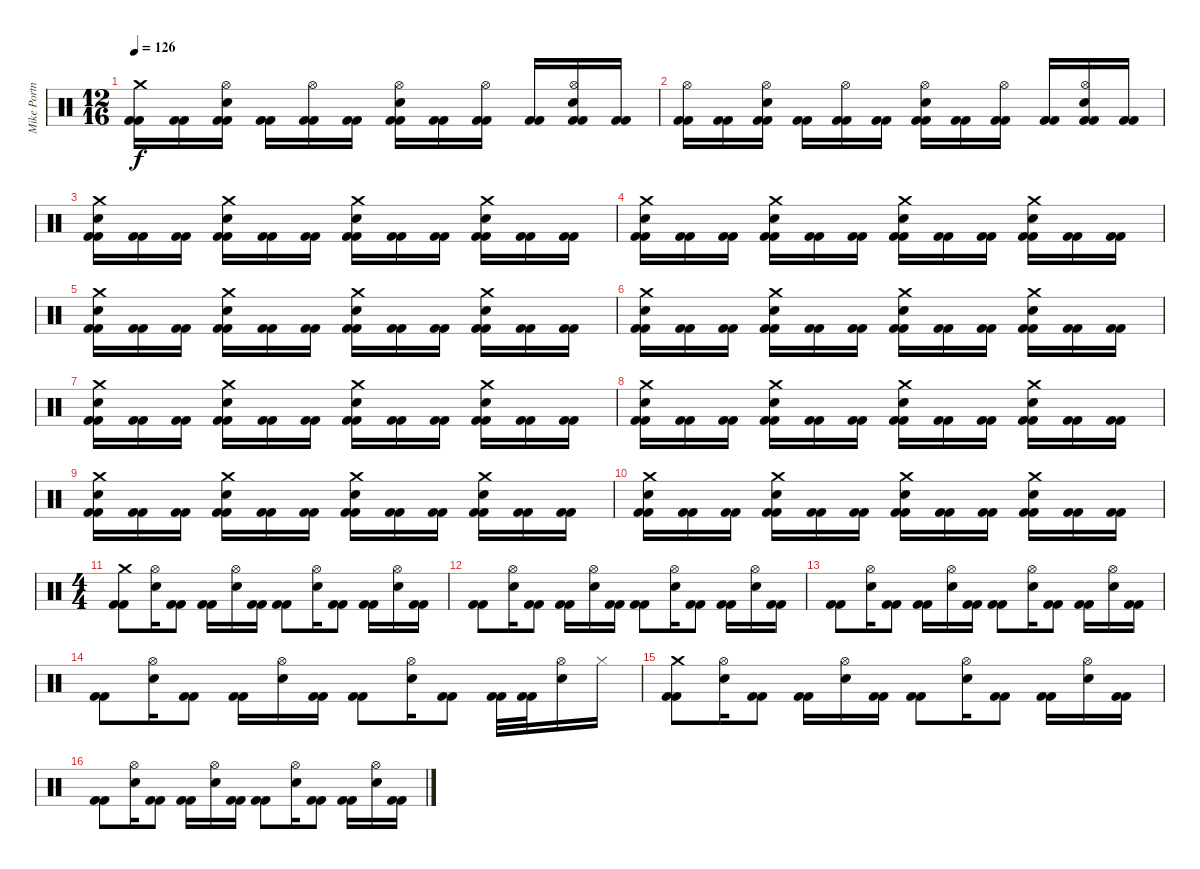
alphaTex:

\track ("Mike Portnoy" "Mike Portn") {instrument percussion}
\staff {score}
\articulation defaults
\ts (12 16)
\tempo 126
\clef neutral
\ks c
("Crash medium (hit)" "Kick (hit) 2" "Kick (hit) 2").16{dy f} ("Kick (hit) 2" "Kick (hit) 2").16 ("Hi-Hat (open)" "Electric Snare (hit)" "Kick (hit) 2" "Kick (hit) 2").16 ("Kick (hit) 2" "Kick (hit) 2").16 ("Hi-Hat (open)" "Kick (hit) 2" "Kick (hit) 2").16 ("Kick (hit) 2" "Kick (hit) 2").16 ("Hi-Hat (open)" "Electric Snare (hit)" "Kick (hit) 2" "Kick (hit) 2").16 ("Kick (hit) 2" "Kick (hit) 2").16 ("Hi-Hat (open)" "Kick (hit) 2" "Kick (hit) 2").16 ("Kick (hit) 2" "Kick (hit) 2").16 ("Hi-Hat (open)" "Electric Snare (hit)" "Kick (hit) 2" "Kick (hit) 2").16 ("Kick (hit) 2" "Kick (hit) 2").16 |
("Hi-Hat (open)" "Kick (hit) 2" "Kick (hit) 2").16 ("Kick (hit) 2" "Kick (hit) 2").16 ("Hi-Hat (open)" "Electric Snare (hit)" "Kick (hit) 2" "Kick (hit) 2").16 ("Kick (hit) 2" "Kick (hit) 2").16 ("Hi-Hat (open)" "Kick (hit) 2" "Kick (hit) 2").16 ("Kick (hit) 2" "Kick (hit) 2").16 ("Hi-Hat (open)" "Electric Snare (hit)" "Kick (hit) 2" "Kick (hit) 2").16 ("Kick (hit) 2" "Kick (hit) 2").16 ("Hi-Hat (open)" "Kick (hit) 2" "Kick (hit) 2").16 ("Kick (hit) 2" "Kick (hit) 2").16 ("Hi-Hat (open)" "Electric Snare (hit)" "Kick (hit) 2" "Kick (hit) 2").16 ("Kick (hit) 2" "Kick (hit) 2").16 |
("Crash medium (hit)" "Electric Snare (hit)" "Kick (hit) 2" "Kick (hit) 2").16 ("Kick (hit) 2" "Kick (hit) 2").16 ("Kick (hit) 2" "Kick (hit) 2").16 ("Crash medium (hit)" "Electric Snare (hit)" "Kick (hit) 2" "Kick (hit) 2").16 ("Kick (hit) 2" "Kick (hit) 2").16 ("Kick (hit) 2" "Kick (hit) 2").16 ("Crash medium (hit)" "Electric Snare (hit)" "Kick (hit) 2" "Kick (hit) 2").16 ("Kick (hit) 2" "Kick (hit) 2").16 ("Kick (hit) 2" "Kick (hit) 2").16 ("Crash medium (hit)" "Electric Snare (hit)" "Kick (hit) 2" "Kick (hit) 2").16 ("Kick (hit) 2" "Kick (hit) 2").16 ("Kick (hit) 2" "Kick (hit) 2").16 |
("Crash medium (hit)" "Electric Snare (hit)" "Kick (hit) 2" "Kick (hit) 2").16 ("Kick (hit) 2" "Kick (hit) 2").16 ("Kick (hit) 2" "Kick (hit) 2").16 ("Crash medium (hit)" "Electric Snare (hit)" "Kick (hit) 2" "Kick (hit) 2").16 ("Kick (hit) 2" "Kick (hit) 2").16 ("Kick (hit) 2" "Kick (hit) 2").16 ("Crash medium (hit)" "Electric Snare (hit)" "Kick (hit) 2" "Kick (hit) 2").16 ("Kick (hit) 2" "Kick (hit) 2").16 ("Kick (hit) 2" "Kick (hit) 2").16 ("Crash medium (hit)" "Electric Snare (hit)" "Kick (hit) 2" "Kick (hit) 2").16 ("Kick (hit) 2" "Kick (hit) 2").16 ("Kick (hit) 2" "Kick (hit) 2").16 |
("Crash medium (hit)" "Electric Snare (hit)" "Kick (hit) 2" "Kick (hit) 2").16 ("Kick (hit) 2" "Kick (hit) 2").16 ("Kick (hit) 2" "Kick (hit) 2").16 ("Crash medium (hit)" "Electric Snare (hit)" "Kick (hit) 2" "Kick (hit) 2").16 ("Kick (hit) 2" "Kick (hit) 2").16 ("Kick (hit) 2" "Kick (hit) 2").16 ("Crash medium (hit)" "Electric Snare (hit)" "Kick (hit) 2" "Kick (hit) 2").16 ("Kick (hit) 2" "Kick (hit) 2").16 ("Kick (hit) 2" "Kick (hit) 2").16 ("Crash medium (hit)" "Electric Snare (hit)" "Kick (hit) 2" "Kick (hit) 2").16 ("Kick (hit) 2" "Kick (hit) 2").16 ("Kick (hit) 2" "Kick (hit) 2").16 |
("Crash medium (hit)" "Electric Snare (hit)" "Kick (hit) 2" "Kick (hit) 2").16 ("Kick (hit) 2" "Kick (hit) 2").16 ("Kick (hit) 2" "Kick (hit) 2").16 ("Crash medium (hit)" "Electric Snare (hit)" "Kick (hit) 2" "Kick (hit) 2").16 ("Kick (hit) 2" "Kick (hit) 2").16 ("Kick (hit) 2" "Kick (hit) 2").16 ("Crash medium (hit)" "Electric Snare (hit)" "Kick (hit) 2" "Kick (hit) 2").16 ("Kick (hit) 2" "Kick (hit) 2").16 ("Kick (hit) 2" "Kick (hit) 2").16 ("Crash medium (hit)" "Electric Snare (hit)" "Kick (hit) 2" "Kick (hit) 2").16 ("Kick (hit) 2" "Kick (hit) 2").16 ("Kick (hit) 2" "Kick (hit) 2").16 |
("Crash medium (hit)" "Electric Snare (hit)" "Kick (hit) 2" "Kick (hit) 2").16 ("Kick (hit) 2" "Kick (hit) 2").16 ("Kick (hit) 2" "Kick (hit) 2").16 ("Crash medium (hit)" "Electric Snare (hit)" "Kick (hit) 2" "Kick (hit) 2").16 ("Kick (hit) 2" "Kick (hit) 2").16 ("Kick (hit) 2" "Kick (hit) 2").16 ("Crash medium (hit)" "Electric Snare (hit)" "Kick (hit) 2" "Kick (hit) 2").16 ("Kick (hit) 2" "Kick (hit) 2").16 ("Kick (hit) 2" "Kick (hit) 2").16 ("Crash medium (hit)" "Electric Snare (hit)" "Kick (hit) 2" "Kick (hit) 2").16 ("Kick (hit) 2" "Kick (hit) 2").16 ("Kick (hit) 2" "Kick (hit) 2").16 |
("Crash medium (hit)" "Electric Snare (hit)" "Kick (hit) 2" "Kick (hit) 2").16 ("Kick (hit) 2" "Kick (hit) 2").16 ("Kick (hit) 2" "Kick (hit) 2").16 ("Crash medium (hit)" "Electric Snare (hit)" "Kick (hit) 2" "Kick (hit) 2").16 ("Kick (hit) 2" "Kick (hit) 2").16 ("Kick (hit) 2" "Kick (hit) 2").16 ("Crash medium (hit)" "Electric Snare (hit)" "Kick (hit) 2" "Kick (hit) 2").16 ("Kick (hit) 2" "Kick (hit) 2").16 ("Kick (hit) 2" "Kick (hit) 2").16 ("Crash medium (hit)" "Electric Snare (hit)" "Kick (hit) 2" "Kick (hit) 2").16 ("Kick (hit) 2" "Kick (hit) 2").16 ("Kick (hit) 2" "Kick (hit) 2").16 |
("Crash medium (hit)" "Electric Snare (hit)" "Kick (hit) 2" "Kick (hit) 2").16 ("Kick (hit) 2" "Kick (hit) 2").16 ("Kick (hit) 2" "Kick (hit) 2").16 ("Crash medium (hit)" "Electric Snare (hit)" "Kick (hit) 2" "Kick (hit) 2").16 ("Kick (hit) 2" "Kick (hit) 2").16 ("Kick (hit) 2" "Kick (hit) 2").16 ("Crash medium (hit)" "Electric Snare (hit)" "Kick (hit) 2" "Kick (hit) 2").16 ("Kick (hit) 2" "Kick (hit) 2").16 ("Kick (hit) 2" "Kick (hit) 2").16 ("Crash medium (hit)" "Electric Snare (hit)" "Kick (hit) 2" "Kick (hit) 2").16 ("Kick (hit) 2" "Kick (hit) 2").16 ("Kick (hit) 2" "Kick (hit) 2").16 |
("Crash medium (hit)" "Electric Snare (hit)" "Kick (hit) 2" "Kick (hit) 2").16 ("Kick (hit) 2" "Kick (hit) 2").16 ("Kick (hit) 2" "Kick (hit) 2").16 ("Crash medium (hit)" "Electric Snare (hit)" "Kick (hit) 2" "Kick (hit) 2").16 ("Kick (hit) 2" "Kick (hit) 2").16 ("Kick (hit) 2" "Kick (hit) 2").16 ("Crash medium (hit)" "Electric Snare (hit)" "Kick (hit) 2" "Kick (hit) 2").16 ("Kick (hit) 2" "Kick (hit) 2").16 ("Kick (hit) 2" "Kick (hit) 2").16 ("Crash medium (hit)" "Electric Snare (hit)" "Kick (hit) 2" "Kick (hit) 2").16 ("Kick (hit) 2" "Kick (hit) 2").16 ("Kick (hit) 2" "Kick (hit) 2").16 |
\ts (4 4)
("Crash medium (hit)" "Kick (hit) 2" "Kick (hit) 2").8 ("Hi-Hat (open)" "Electric Snare (hit)").16 ("Kick (hit) 2" "Kick (hit) 2").8 ("Kick (hit) 2" "Kick (hit) 2").16 ("Hi-Hat (open)" "Electric Snare (hit)").16 ("Kick (hit) 2" "Kick (hit) 2").16 ("Kick (hit) 2" "Kick (hit) 2").8 ("Hi-Hat (open)" "Electric Snare (hit)").16 ("Kick (hit) 2" "Kick (hit) 2").8 ("Kick (hit) 2" "Kick (hit) 2").16 ("Hi-Hat (open)" "Electric Snare (hit)").16 ("Kick (hit) 2" "Kick (hit) 2").16 |
("Kick (hit) 2" "Kick (hit) 2").8 ("Hi-Hat (open)" "Electric Snare (hit)").16 ("Kick (hit) 2" "Kick (hit) 2").8 ("Kick (hit) 2" "Kick (hit) 2").16 ("Hi-Hat (open)" "Electric Snare (hit)").16 ("Kick (hit) 2" "Kick (hit) 2").16 ("Kick (hit) 2" "Kick (hit) 2").8 ("Hi-Hat (open)" "Electric Snare (hit)").16 ("Kick (hit) 2" "Kick (hit) 2").8 ("Kick (hit) 2" "Kick (hit) 2").16 ("Hi-Hat (open)" "Electric Snare (hit)").16 ("Kick (hit) 2" "Kick (hit) 2").16 |
("Kick (hit) 2" "Kick (hit) 2").8 ("Hi-Hat (open)" "Electric Snare (hit)").16 ("Kick (hit) 2" "Kick (hit) 2").8 ("Kick (hit) 2" "Kick (hit) 2").16 ("Hi-Hat (open)" "Electric Snare (hit)").16 ("Kick (hit) 2" "Kick (hit) 2").16 ("Kick (hit) 2" "Kick (hit) 2").8 ("Hi-Hat (open)" "Electric Snare (hit)").16 ("Kick (hit) 2" "Kick (hit) 2").8 ("Kick (hit) 2" "Kick (hit) 2").16 ("Hi-Hat (open)" "Electric Snare (hit)").16 ("Kick (hit) 2" "Kick (hit) 2").16 |
("Kick (hit) 2" "Kick (hit) 2").8 ("Hi-Hat (open)" "Electric Snare (hit)").16 ("Kick (hit) 2" "Kick (hit) 2").8 ("Kick (hit) 2" "Kick (hit) 2").16 ("Hi-Hat (open)" "Electric Snare (hit)").16 ("Kick (hit) 2" "Kick (hit) 2").16 ("Kick (hit) 2" "Kick (hit) 2").8 ("Hi-Hat (open)" "Electric Snare (hit)").16 ("Kick (hit) 2" "Kick (hit) 2").8 ("Kick (hit) 2" "Kick (hit) 2").32 ("Kick (hit) 2" "Kick (hit) 2").32 ("Hi-Hat (open)" "Electric Snare (hit)").16 "Hi-Hat (closed)".16 |
("Crash medium (hit)" "Kick (hit) 2" "Kick (hit) 2").8 ("Hi-Hat (open)" "Electric Snare (hit)").16 ("Kick (hit) 2" "Kick (hit) 2").8 ("Kick (hit) 2" "Kick (hit) 2").16 ("Hi-Hat (open)" "Electric Snare (hit)").16 ("Kick (hit) 2" "Kick (hit) 2").16 ("Kick (hit) 2" "Kick (hit) 2").8 ("Hi-Hat (open)" "Electric Snare (hit)").16 ("Kick (hit) 2" "Kick (hit) 2").8 ("Kick (hit) 2" "Kick (hit) 2").16 ("Hi-Hat (open)" "Electric Snare (hit)").16 ("Kick (hit) 2" "Kick (hit) 2").16 |
("Kick (hit) 2" "Kick (hit) 2").8 ("Hi-Hat (open)" "Electric Snare (hit)").16 ("Kick (hit) 2" "Kick (hit) 2").8 ("Kick (hit) 2" "Kick (hit) 2").16 ("Hi-Hat (open)" "Electric Snare (hit)").16 ("Kick (hit) 2" "Kick (hit) 2").16 ("Kick (hit) 2" "Kick (hit) 2").8 ("Hi-Hat (open)" "Electric Snare (hit)").16 ("Kick (hit) 2" "Kick (hit) 2").8 ("Kick (hit) 2" "Kick (hit) 2").16 ("Hi-Hat (open)" "Electric Snare (hit)").16 ("Kick (hit) 2" "Kick (hit) 2").16
